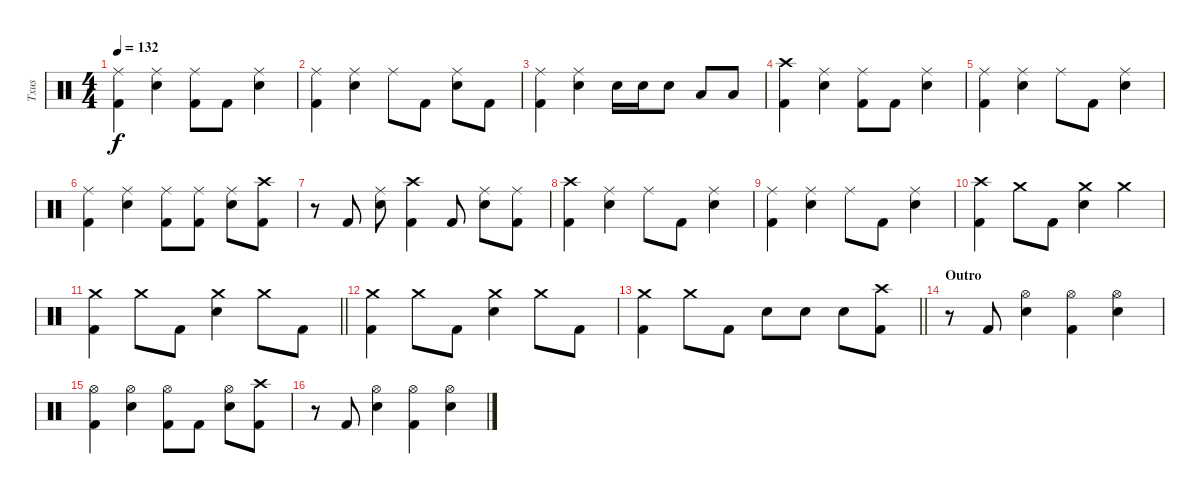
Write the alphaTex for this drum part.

\track ("Txus" "Txus") {instrument percussion}
\staff {score}
\articulation defaults
\ts (4 4)
\tempo 132
\clef neutral
\ks c
("Ride (middle)" "Kick (hit) 2").4{dy f} ("Ride (middle)" "Electric Snare (hit)").4 ("Ride (middle)" "Kick (hit) 2").8 "Kick (hit) 2".8 ("Ride (middle)" "Electric Snare (hit)").4 |
("Ride (middle)" "Kick (hit) 2").4 ("Ride (middle)" "Electric Snare (hit)").4 "Ride (middle)".8 "Kick (hit) 2".8 ("Ride (middle)" "Electric Snare (hit)").8 "Kick (hit) 2".8 |
("Ride (middle)" "Kick (hit) 2").4 ("Ride (middle)" "Electric Snare (hit)").4 "Electric Snare (hit)".16 "Electric Snare (hit)".16 "Electric Snare (hit)".8 "Low Tom (hit)".8 "Low Tom (hit)".8 |
("Crash high (hit)" "Kick (hit) 2").4 ("Ride (middle)" "Electric Snare (hit)").4 ("Ride (middle)" "Kick (hit) 2").8 "Kick (hit) 2".8 ("Ride (middle)" "Electric Snare (hit)").4 |
("Ride (middle)" "Kick (hit) 2").4 ("Ride (middle)" "Electric Snare (hit)").4 "Ride (middle)".8 "Kick (hit) 2".8 ("Ride (middle)" "Electric Snare (hit)").4 |
("Ride (middle)" "Kick (hit) 2").4 ("Ride (middle)" "Electric Snare (hit)").4 ("Ride (middle)" "Kick (hit) 2").8 ("Ride (middle)" "Kick (hit) 2").8 ("Ride (middle)" "Electric Snare (hit)").8 ("Crash high (hit)" "Kick (hit) 2").8 |
r.8 "Kick (hit) 2".8 ("Ride (middle)" "Electric Snare (hit)").8 ("Crash high (hit)" "Kick (hit) 2").4 "Kick (hit) 2".8 ("Ride (middle)" "Electric Snare (hit)").8 ("Ride (middle)" "Kick (hit) 2").8 |
("Crash high (hit)" "Kick (hit) 2").4 ("Ride (middle)" "Electric Snare (hit)").4 "Ride (middle)".8 "Kick (hit) 2".8 ("Ride (middle)" "Electric Snare (hit)").4 |
("Ride (middle)" "Kick (hit) 2").4 ("Ride (middle)" "Electric Snare (hit)").4 "Ride (middle)".8 "Kick (hit) 2".8 ("Ride (middle)" "Electric Snare (hit)").4 |
("Crash high (hit)" "Kick (hit) 2").4 "Crash medium (hit)".8 "Kick (hit) 2".8 ("Crash medium (hit)" "Electric Snare (hit)").4 "Crash medium (hit)".4 |
\barLineRight lightlight
("Crash medium (hit)" "Kick (hit) 2").4 "Crash medium (hit)".8 "Kick (hit) 2".8 ("Crash medium (hit)" "Electric Snare (hit)").4 "Crash medium (hit)".8 "Kick (hit) 2".8 |
("Crash medium (hit)" "Kick (hit) 2").4 "Crash medium (hit)".8 "Kick (hit) 2".8 ("Crash medium (hit)" "Electric Snare (hit)").4 "Crash medium (hit)".8 "Kick (hit) 2".8 |
\barLineRight lightlight
("Crash medium (hit)" "Kick (hit) 2").4 "Crash medium (hit)".8 "Kick (hit) 2".8 "Electric Snare (hit)".8 "Electric Snare (hit)".8 "Electric Snare (hit)".8 ("Crash high (hit)" "Kick (hit) 2").8 |
\section ("" "Outro")
r.8 "Kick (hit) 2".8 ("Hi-Hat (open)" "Electric Snare (hit)").4 ("Hi-Hat (open)" "Kick (hit) 2").4 ("Hi-Hat (open)" "Electric Snare (hit)").4 |
("Hi-Hat (open)" "Kick (hit) 2").4 ("Hi-Hat (open)" "Electric Snare (hit)").4 ("Hi-Hat (open)" "Kick (hit) 2").8 "Kick (hit) 2".8 ("Hi-Hat (open)" "Electric Snare (hit)").8 ("Crash high (hit)" "Kick (hit) 2").8 |
r.8 "Kick (hit) 2".8 ("Hi-Hat (open)" "Electric Snare (hit)").4 ("Hi-Hat (open)" "Kick (hit) 2").4 ("Hi-Hat (open)" "Electric Snare (hit)").4
